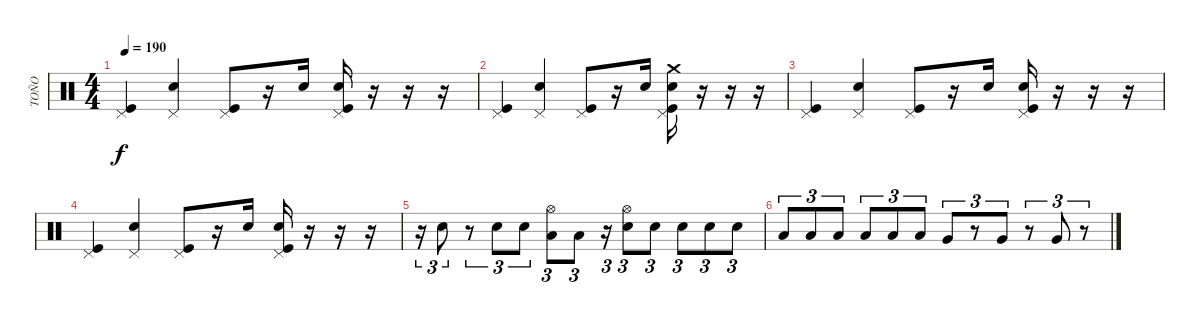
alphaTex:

\track ("TOÑO" "TOÑO") {instrument percussion}
\staff {score}
\articulation defaults
\ts (4 4)
\tempo 190
\clef neutral
\ks c
("Pedal Hi-Hat (hit)" "Kick (hit)").4{dy f} ("Pedal Hi-Hat (hit)" "Electric Snare (hit)").4 ("Pedal Hi-Hat (hit)" "Kick (hit)").8 r.16 "Electric Snare (hit)".16 ("Pedal Hi-Hat (hit)" "Electric Snare (hit)" "Kick (hit)").16 r.16 r.16 r.16 |
("Pedal Hi-Hat (hit)" "Kick (hit)").4 ("Pedal Hi-Hat (hit)" "Electric Snare (hit)").4 ("Pedal Hi-Hat (hit)" "Kick (hit)").8 r.16 "Electric Snare (hit)".16 ("Pedal Hi-Hat (hit)" "Crash medium (hit)" "Electric Snare (hit)" "Kick (hit)").16 r.16 r.16 r.16 |
("Pedal Hi-Hat (hit)" "Kick (hit)").4 ("Pedal Hi-Hat (hit)" "Electric Snare (hit)").4 ("Pedal Hi-Hat (hit)" "Kick (hit)").8 r.16 "Electric Snare (hit)".16 ("Pedal Hi-Hat (hit)" "Electric Snare (hit)" "Kick (hit)").16 r.16 r.16 r.16 |
("Pedal Hi-Hat (hit)" "Kick (hit)").4 ("Pedal Hi-Hat (hit)" "Snare (hit) 2").4 ("Pedal Hi-Hat (hit)" "Kick (hit)").8 r.16 "Electric Snare (hit)".16 ("Pedal Hi-Hat (hit)" "Electric Snare (hit)" "Kick (hit)").16 r.16 r.16 r.16 |
r.16{tu (3 2)} "Electric Snare (hit)".8{tu (3 2)} r.8{tu (3 2)} "Electric Snare (hit)".8{tu (3 2)} "Electric Snare (hit)".8{tu (3 2)} ("Hi-Hat (open)" "Low Tom (hit)").8{tu (3 2)} "Low Tom (hit)".8{tu (3 2)} r.16{tu (3 2)} ("Hi-Hat (open)" "Electric Snare (hit)").8{tu (3 2)} "Electric Snare (hit)".8{tu (3 2)} "Electric Snare (hit)".8{tu (3 2)} "Electric Snare (hit)".8{tu (3 2)} "Electric Snare (hit)".8{tu (3 2)} |
"Low Tom (hit)".8{tu (3 2)} "Low Tom (hit)".8{tu (3 2)} "Low Tom (hit)".8{tu (3 2)} "Low Tom (hit)".8{tu (3 2)} "Low Tom (hit)".8{tu (3 2)} "Low Tom (hit)".8{tu (3 2)} "Very Low Tom (hit)".8{tu (3 2)} r.8{tu (3 2)} "Very Low Tom (hit)".8{tu (3 2)} r.8{tu (3 2)} "Very Low Tom (hit)".8{tu (3 2)} r.8{tu (3 2)}
